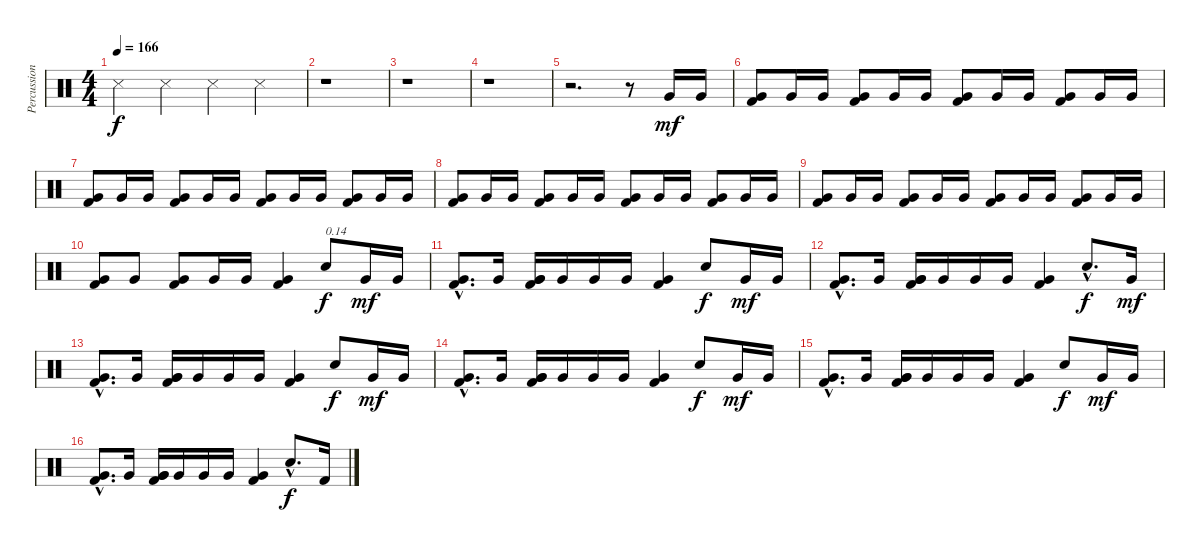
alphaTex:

\track ("Percussions" "Percussion") {instrument percussion}
\staff {score}
\articulation defaults
\ts (4 4)
\tempo 166
\clef neutral
\ks c "Metronome (hit)".4{dy f} "Metronome (hit)".4 "Metronome (hit)".4 "Metronome (hit)".4
|
r.1 |
r.1 |
r.1 |
r.2{d} r.8 "Very Low Tom (hit)".16{dy mf} "Very Low Tom (hit)".16 |
("Kick (hit) 2" "Very Low Tom (hit)").8 "Very Low Tom (hit)".16 "Very Low Tom (hit)".16 ("Kick (hit) 2" "Very Low Tom (hit)").8 "Very Low Tom (hit)".16 "Very Low Tom (hit)".16 ("Kick (hit) 2" "Very Low Tom (hit)").8 "Very Low Tom (hit)".16 "Very Low Tom (hit)".16 ("Kick (hit) 2" "Very Low Tom (hit)").8 "Very Low Tom (hit)".16 "Very Low Tom (hit)".16 |
("Kick (hit) 2" "Very Low Tom (hit)").8 "Very Low Tom (hit)".16 "Very Low Tom (hit)".16 ("Kick (hit) 2" "Very Low Tom (hit)").8 "Very Low Tom (hit)".16 "Very Low Tom (hit)".16 ("Kick (hit) 2" "Very Low Tom (hit)").8 "Very Low Tom (hit)".16 "Very Low Tom (hit)".16 ("Kick (hit) 2" "Very Low Tom (hit)").8 "Very Low Tom (hit)".16 "Very Low Tom (hit)".16 |
("Kick (hit) 2" "Very Low Tom (hit)").8 "Very Low Tom (hit)".16 "Very Low Tom (hit)".16 ("Kick (hit) 2" "Very Low Tom (hit)").8 "Very Low Tom (hit)".16 "Very Low Tom (hit)".16 ("Kick (hit) 2" "Very Low Tom (hit)").8 "Very Low Tom (hit)".16 "Very Low Tom (hit)".16 ("Kick (hit) 2" "Very Low Tom (hit)").8 "Very Low Tom (hit)".16 "Very Low Tom (hit)".16 |
("Kick (hit) 2" "Very Low Tom (hit)").8 "Very Low Tom (hit)".16 "Very Low Tom (hit)".16 ("Kick (hit) 2" "Very Low Tom (hit)").8 "Very Low Tom (hit)".16 "Very Low Tom (hit)".16 ("Kick (hit) 2" "Very Low Tom (hit)").8 "Very Low Tom (hit)".16 "Very Low Tom (hit)".16 ("Kick (hit) 2" "Very Low Tom (hit)").8 "Very Low Tom (hit)".16 "Very Low Tom (hit)".16 |
("Kick (hit) 2" "Very Low Tom (hit)").8 "Very Low Tom (hit)".8 ("Kick (hit) 2" "Very Low Tom (hit)").8 "Very Low Tom (hit)".16 "Very Low Tom (hit)".16 ("Kick (hit) 2" "Very Low Tom (hit)").4 "Electric Snare (hit)".8{txt "0.14" dy f} "Very Low Tom (hit)".16{dy mf} "Very Low Tom (hit)".16 |
("Kick (hit) 2"{hac} "Very Low Tom (hit)"{hac}).8{d} "Very Low Tom (hit)".16 ("Kick (hit) 2" "Very Low Tom (hit)" "Very Low Tom (hit)").16 "Very Low Tom (hit)".16 "Very Low Tom (hit)".16 "Very Low Tom (hit)".16 ("Kick (hit) 2" "Very Low Tom (hit)").4 "Electric Snare (hit)".8{dy f} "Very Low Tom (hit)".16{dy mf} "Very Low Tom (hit)".16 |
("Kick (hit) 2"{hac} "Very Low Tom (hit)"{hac}).8{d} "Very Low Tom (hit)".16 ("Kick (hit) 2" "Very Low Tom (hit)" "Very Low Tom (hit)").16 "Very Low Tom (hit)".16 "Very Low Tom (hit)".16 "Very Low Tom (hit)".16 ("Kick (hit) 2" "Very Low Tom (hit)").4 "Electric Snare (hit)"{hac}.8{d dy f} "Very Low Tom (hit)".16{dy mf} |
("Kick (hit) 2"{hac} "Very Low Tom (hit)"{hac}).8{d} "Very Low Tom (hit)".16 ("Kick (hit) 2" "Very Low Tom (hit)" "Very Low Tom (hit)").16 "Very Low Tom (hit)".16 "Very Low Tom (hit)".16 "Very Low Tom (hit)".16 ("Kick (hit) 2" "Very Low Tom (hit)").4 "Electric Snare (hit)".8{dy f} "Very Low Tom (hit)".16{dy mf} "Very Low Tom (hit)".16 |
("Kick (hit) 2"{hac} "Very Low Tom (hit)"{hac}).8{d} "Very Low Tom (hit)".16 ("Kick (hit) 2" "Very Low Tom (hit)" "Very Low Tom (hit)").16 "Very Low Tom (hit)".16 "Very Low Tom (hit)".16 "Very Low Tom (hit)".16 ("Kick (hit) 2" "Very Low Tom (hit)").4 "Electric Snare (hit)".8{dy f} "Very Low Tom (hit)".16{dy mf} "Very Low Tom (hit)".16 |
("Kick (hit) 2"{hac} "Very Low Tom (hit)"{hac}).8{d} "Very Low Tom (hit)".16 ("Kick (hit) 2" "Very Low Tom (hit)" "Very Low Tom (hit)").16 "Very Low Tom (hit)".16 "Very Low Tom (hit)".16 "Very Low Tom (hit)".16 ("Kick (hit) 2" "Very Low Tom (hit)").4 "Electric Snare (hit)".8{dy f} "Very Low Tom (hit)".16{dy mf} "Very Low Tom (hit)".16 |
("Kick (hit) 2"{hac} "Very Low Tom (hit)"{hac}).8{d} "Very Low Tom (hit)".16 ("Kick (hit) 2" "Very Low Tom (hit)" "Very Low Tom (hit)").16 "Very Low Tom (hit)".16 "Very Low Tom (hit)".16 "Very Low Tom (hit)".16 ("Kick (hit) 2" "Very Low Tom (hit)").4 "Electric Snare (hit)"{hac}.8{d dy f} "Kick (hit) 2".16
